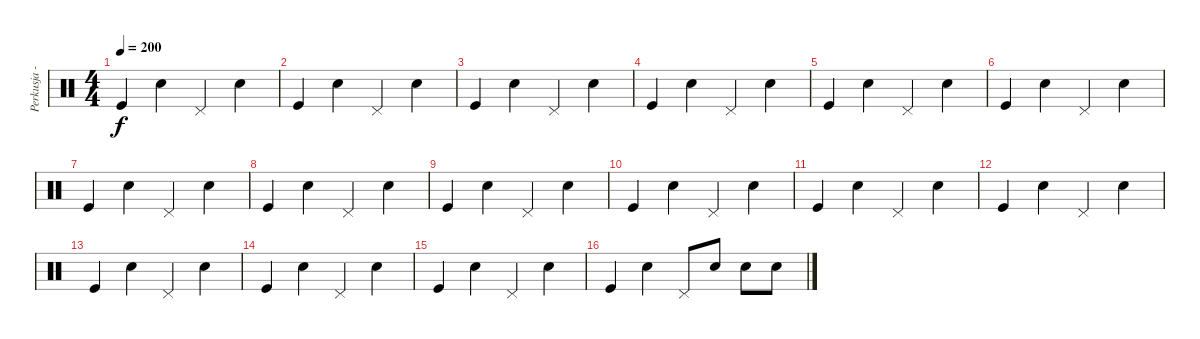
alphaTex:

\track ("Perkusja - J. Olejarz" "Perkusja -") {instrument percussion}
\staff {score}
\articulation defaults
\ts (4 4)
\tempo 200
\clef neutral
\ks c "Kick (hit)".4{dy f} "Electric Snare (hit)".4 "Pedal Hi-Hat (hit)".4 "Electric Snare (hit)".4
|
"Kick (hit)".4 "Electric Snare (hit)".4 "Pedal Hi-Hat (hit)".4 "Electric Snare (hit)".4 |
"Kick (hit)".4 "Electric Snare (hit)".4 "Pedal Hi-Hat (hit)".4 "Electric Snare (hit)".4 |
"Kick (hit)".4 "Electric Snare (hit)".4 "Pedal Hi-Hat (hit)".4 "Electric Snare (hit)".4 |
"Kick (hit)".4 "Electric Snare (hit)".4 "Pedal Hi-Hat (hit)".4 "Electric Snare (hit)".4 |
"Kick (hit)".4 "Electric Snare (hit)".4 "Pedal Hi-Hat (hit)".4 "Electric Snare (hit)".4 |
"Kick (hit)".4 "Electric Snare (hit)".4 "Pedal Hi-Hat (hit)".4 "Electric Snare (hit)".4 |
"Kick (hit)".4 "Electric Snare (hit)".4 "Pedal Hi-Hat (hit)".4 "Electric Snare (hit)".4 |
"Kick (hit)".4 "Electric Snare (hit)".4 "Pedal Hi-Hat (hit)".4 "Electric Snare (hit)".4 |
"Kick (hit)".4 "Electric Snare (hit)".4 "Pedal Hi-Hat (hit)".4 "Electric Snare (hit)".4 |
"Kick (hit)".4 "Electric Snare (hit)".4 "Pedal Hi-Hat (hit)".4 "Electric Snare (hit)".4 |
"Kick (hit)".4 "Electric Snare (hit)".4 "Pedal Hi-Hat (hit)".4 "Electric Snare (hit)".4 |
"Kick (hit)".4 "Electric Snare (hit)".4 "Pedal Hi-Hat (hit)".4 "Electric Snare (hit)".4 |
"Kick (hit)".4 "Electric Snare (hit)".4 "Pedal Hi-Hat (hit)".4 "Electric Snare (hit)".4 |
"Kick (hit)".4 "Electric Snare (hit)".4 "Pedal Hi-Hat (hit)".4 "Electric Snare (hit)".4 |
"Kick (hit)".4 "Electric Snare (hit)".4 "Pedal Hi-Hat (hit)".8 "Snare (hit) 2".8 "Snare (hit) 2".8 "Snare (hit) 2".8
